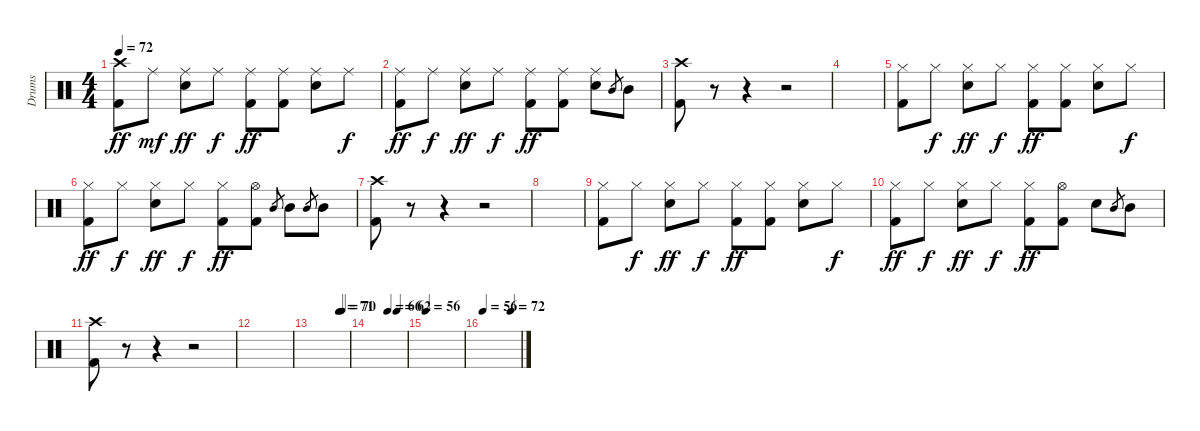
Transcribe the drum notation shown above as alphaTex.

\track ("Drums" "Drums") {instrument percussion}
\staff {score}
\articulation defaults
\ts (4 4)
\tempo 72
\clef neutral
\ks c
("Crash high (hit)" "Kick (hit) 2").8{dy ff} "Ride (middle)".8{dy mf} ("Ride (middle)" "Snare (hit) 2").8{dy ff} "Ride (middle)".8{dy f} ("Ride (middle)" "Kick (hit) 2").8{dy ff} ("Ride (middle)" "Kick (hit) 2").8 ("Ride (middle)" "Snare (hit) 2").8 "Ride (middle)".8{dy f} |
("Ride (middle)" "Kick (hit) 2").8{dy ff} "Ride (middle)".8{dy f} ("Ride (middle)" "Snare (hit) 2").8{dy ff} "Ride (middle)".8{dy f} ("Ride (middle)" "Kick (hit) 2").8{dy ff} ("Ride (middle)" "Kick (hit) 2").8 ("Ride (middle)" "Snare (hit) 2").8 "Mid Tom (hit)".8{gr} "Mid Tom (hit)".8 |
("Crash high (hit)" "Kick (hit) 2").8 r.8 r.4 r.2 |
|
("Hi-Hat (closed)" "Kick (hit) 2").8 "Hi-Hat (closed)".8{dy f} ("Hi-Hat (closed)" "Snare (hit) 2").8{dy ff} "Hi-Hat (closed)".8{dy f} ("Hi-Hat (closed)" "Kick (hit) 2").8{dy ff} ("Hi-Hat (closed)" "Kick (hit) 2").8 ("Hi-Hat (closed)" "Snare (hit) 2").8 "Hi-Hat (closed)".8{dy f} |
("Hi-Hat (closed)" "Kick (hit) 2").8{dy ff} "Hi-Hat (closed)".8{dy f} ("Hi-Hat (closed)" "Snare (hit) 2").8{dy ff} "Hi-Hat (closed)".8{dy f} ("Hi-Hat (closed)" "Kick (hit) 2").8{dy ff} ("Hi-Hat (open)" "Kick (hit) 2").8 "Mid Tom (hit)".8{gr} "Mid Tom (hit)".8 "Mid Tom (hit)".8{gr} "Mid Tom (hit)".8 |
("Crash high (hit)" "Kick (hit) 2").8 r.8 r.4 r.2 |
|
("Hi-Hat (closed)" "Kick (hit) 2").8 "Hi-Hat (closed)".8{dy f} ("Hi-Hat (closed)" "Snare (hit) 2").8{dy ff} "Hi-Hat (closed)".8{dy f} ("Hi-Hat (closed)" "Kick (hit) 2").8{dy ff} ("Hi-Hat (closed)" "Kick (hit) 2").8 ("Hi-Hat (closed)" "Snare (hit) 2").8 "Hi-Hat (closed)".8{dy f} |
("Hi-Hat (closed)" "Kick (hit) 2").8{dy ff} "Hi-Hat (closed)".8{dy f} ("Hi-Hat (closed)" "Snare (hit) 2").8{dy ff} "Hi-Hat (closed)".8{dy f} ("Hi-Hat (closed)" "Kick (hit) 2").8{dy ff} ("Hi-Hat (open)" "Kick (hit) 2").8 "Snare (hit) 2".8 "Mid Tom (hit)".8{gr} "Mid Tom (hit)".8 |
("Crash high (hit)" "Kick (hit) 2").8 r.8 r.4 r.2 |
|
\tempo (71 0.75)
\tempo (70 0.8125)
|
\tempo (66 0.5)
\tempo (62 0.75)
|
\tempo 56
|
\tempo 56
\tempo (72 0.75)
